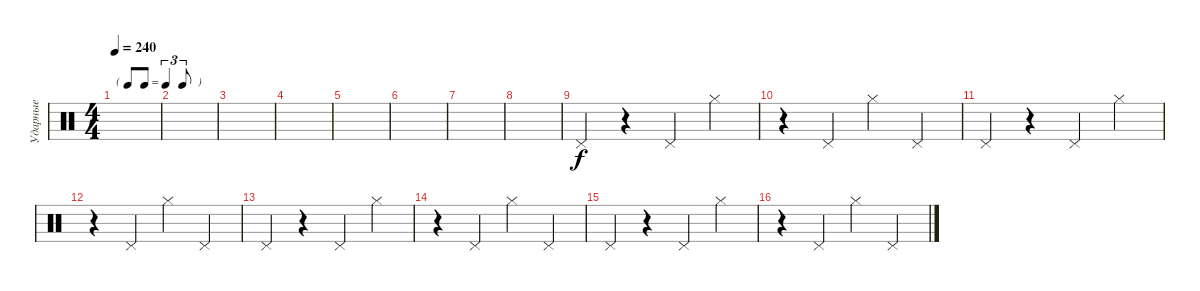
\track ("Ударные" "Ударные") {instrument percussion}
\staff {score}
\articulation defaults
\ts (4 4)
\tf triplet8th
\tempo 240
\clef neutral
\ks c
|
|
|
|
|
|
|
|
"Pedal Hi-Hat (hit)".4 r.4 "Pedal Hi-Hat (hit)".4 "Hi-Hat (closed)".4 |
r.4 "Pedal Hi-Hat (hit)".4 "Hi-Hat (closed)".4 "Pedal Hi-Hat (hit)".4 |
"Pedal Hi-Hat (hit)".4 r.4 "Pedal Hi-Hat (hit)".4 "Hi-Hat (closed)".4 |
r.4 "Pedal Hi-Hat (hit)".4 "Hi-Hat (closed)".4 "Pedal Hi-Hat (hit)".4 |
"Pedal Hi-Hat (hit)".4 r.4 "Pedal Hi-Hat (hit)".4 "Hi-Hat (closed)".4 |
r.4 "Pedal Hi-Hat (hit)".4 "Hi-Hat (closed)".4 "Pedal Hi-Hat (hit)".4 |
"Pedal Hi-Hat (hit)".4 r.4 "Pedal Hi-Hat (hit)".4 "Hi-Hat (closed)".4 |
r.4 "Pedal Hi-Hat (hit)".4 "Hi-Hat (closed)".4 "Pedal Hi-Hat (hit)".4
